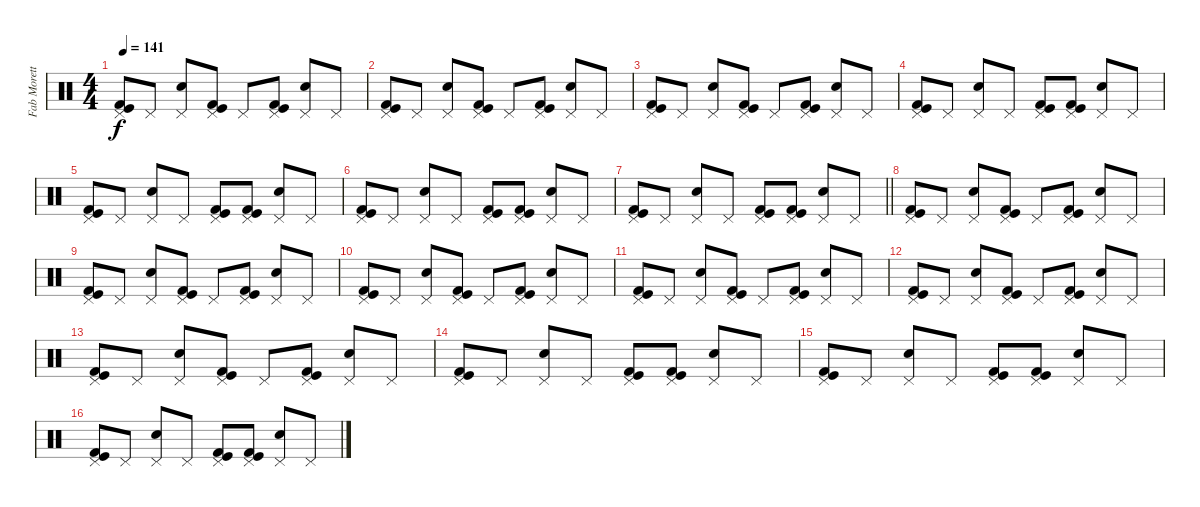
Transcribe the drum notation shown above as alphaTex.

\track ("Fab Moretti - Drums" "Fab Morett") {instrument percussion}
\staff {score}
\articulation defaults
\ts (4 4)
\tempo 141
\clef neutral
\ks c
("Pedal Hi-Hat (hit)" "Kick (hit) 2" "Kick (hit)").8{dy f} "Pedal Hi-Hat (hit)".8 ("Pedal Hi-Hat (hit)" "Snare (hit) 2").8 ("Pedal Hi-Hat (hit)" "Kick (hit) 2" "Kick (hit)").8 "Pedal Hi-Hat (hit)".8 ("Pedal Hi-Hat (hit)" "Kick (hit) 2" "Kick (hit)").8 ("Pedal Hi-Hat (hit)" "Snare (hit) 2").8 "Pedal Hi-Hat (hit)".8 |
("Pedal Hi-Hat (hit)" "Kick (hit) 2" "Kick (hit)").8 "Pedal Hi-Hat (hit)".8 ("Pedal Hi-Hat (hit)" "Snare (hit) 2").8 ("Pedal Hi-Hat (hit)" "Kick (hit) 2" "Kick (hit)").8 "Pedal Hi-Hat (hit)".8 ("Pedal Hi-Hat (hit)" "Kick (hit) 2" "Kick (hit)").8 ("Pedal Hi-Hat (hit)" "Snare (hit) 2").8 "Pedal Hi-Hat (hit)".8 |
("Pedal Hi-Hat (hit)" "Kick (hit) 2" "Kick (hit)").8 "Pedal Hi-Hat (hit)".8 ("Pedal Hi-Hat (hit)" "Snare (hit) 2").8 ("Pedal Hi-Hat (hit)" "Kick (hit) 2" "Kick (hit)").8 "Pedal Hi-Hat (hit)".8 ("Pedal Hi-Hat (hit)" "Kick (hit) 2" "Kick (hit)").8 ("Pedal Hi-Hat (hit)" "Snare (hit) 2").8 "Pedal Hi-Hat (hit)".8 |
("Pedal Hi-Hat (hit)" "Kick (hit) 2" "Kick (hit)").8 "Pedal Hi-Hat (hit)".8 ("Pedal Hi-Hat (hit)" "Snare (hit) 2").8 "Pedal Hi-Hat (hit)".8 ("Pedal Hi-Hat (hit)" "Kick (hit) 2" "Kick (hit)").8 ("Pedal Hi-Hat (hit)" "Kick (hit) 2" "Kick (hit)").8 ("Pedal Hi-Hat (hit)" "Snare (hit) 2").8 "Pedal Hi-Hat (hit)".8 |
("Pedal Hi-Hat (hit)" "Kick (hit) 2" "Kick (hit)").8 "Pedal Hi-Hat (hit)".8 ("Pedal Hi-Hat (hit)" "Snare (hit) 2").8 "Pedal Hi-Hat (hit)".8 ("Pedal Hi-Hat (hit)" "Kick (hit) 2" "Kick (hit)").8 ("Pedal Hi-Hat (hit)" "Kick (hit) 2" "Kick (hit)").8 ("Pedal Hi-Hat (hit)" "Snare (hit) 2").8 "Pedal Hi-Hat (hit)".8 |
("Pedal Hi-Hat (hit)" "Kick (hit) 2" "Kick (hit)").8 "Pedal Hi-Hat (hit)".8 ("Pedal Hi-Hat (hit)" "Snare (hit) 2").8 "Pedal Hi-Hat (hit)".8 ("Pedal Hi-Hat (hit)" "Kick (hit) 2" "Kick (hit)").8 ("Pedal Hi-Hat (hit)" "Kick (hit) 2" "Kick (hit)").8 ("Pedal Hi-Hat (hit)" "Snare (hit) 2").8 "Pedal Hi-Hat (hit)".8 |
\barLineRight lightlight
("Pedal Hi-Hat (hit)" "Kick (hit) 2" "Kick (hit)").8 "Pedal Hi-Hat (hit)".8 ("Pedal Hi-Hat (hit)" "Snare (hit) 2").8 "Pedal Hi-Hat (hit)".8 ("Pedal Hi-Hat (hit)" "Kick (hit) 2" "Kick (hit)").8 ("Pedal Hi-Hat (hit)" "Kick (hit) 2" "Kick (hit)").8 ("Pedal Hi-Hat (hit)" "Snare (hit) 2").8 "Pedal Hi-Hat (hit)".8 |
("Pedal Hi-Hat (hit)" "Kick (hit) 2" "Kick (hit)").8 "Pedal Hi-Hat (hit)".8 ("Pedal Hi-Hat (hit)" "Snare (hit) 2").8 ("Pedal Hi-Hat (hit)" "Kick (hit) 2" "Kick (hit)").8 "Pedal Hi-Hat (hit)".8 ("Pedal Hi-Hat (hit)" "Kick (hit) 2" "Kick (hit)").8 ("Pedal Hi-Hat (hit)" "Snare (hit) 2").8 "Pedal Hi-Hat (hit)".8 |
("Pedal Hi-Hat (hit)" "Kick (hit) 2" "Kick (hit)").8 "Pedal Hi-Hat (hit)".8 ("Pedal Hi-Hat (hit)" "Snare (hit) 2").8 ("Pedal Hi-Hat (hit)" "Kick (hit) 2" "Kick (hit)").8 "Pedal Hi-Hat (hit)".8 ("Pedal Hi-Hat (hit)" "Kick (hit) 2" "Kick (hit)").8 ("Pedal Hi-Hat (hit)" "Snare (hit) 2").8 "Pedal Hi-Hat (hit)".8 |
("Pedal Hi-Hat (hit)" "Kick (hit) 2" "Kick (hit)").8 "Pedal Hi-Hat (hit)".8 ("Pedal Hi-Hat (hit)" "Snare (hit) 2").8 ("Pedal Hi-Hat (hit)" "Kick (hit) 2" "Kick (hit)").8 "Pedal Hi-Hat (hit)".8 ("Pedal Hi-Hat (hit)" "Kick (hit) 2" "Kick (hit)").8 ("Pedal Hi-Hat (hit)" "Snare (hit) 2").8 "Pedal Hi-Hat (hit)".8 |
("Pedal Hi-Hat (hit)" "Kick (hit) 2" "Kick (hit)").8 "Pedal Hi-Hat (hit)".8 ("Pedal Hi-Hat (hit)" "Snare (hit) 2").8 ("Pedal Hi-Hat (hit)" "Kick (hit) 2" "Kick (hit)").8 "Pedal Hi-Hat (hit)".8 ("Pedal Hi-Hat (hit)" "Kick (hit) 2" "Kick (hit)").8 ("Pedal Hi-Hat (hit)" "Snare (hit) 2").8 "Pedal Hi-Hat (hit)".8 |
("Pedal Hi-Hat (hit)" "Kick (hit) 2" "Kick (hit)").8 "Pedal Hi-Hat (hit)".8 ("Pedal Hi-Hat (hit)" "Snare (hit) 2").8 ("Pedal Hi-Hat (hit)" "Kick (hit) 2" "Kick (hit)").8 "Pedal Hi-Hat (hit)".8 ("Pedal Hi-Hat (hit)" "Kick (hit) 2" "Kick (hit)").8 ("Pedal Hi-Hat (hit)" "Snare (hit) 2").8 "Pedal Hi-Hat (hit)".8 |
("Pedal Hi-Hat (hit)" "Kick (hit) 2" "Kick (hit)").8 "Pedal Hi-Hat (hit)".8 ("Pedal Hi-Hat (hit)" "Snare (hit) 2").8 ("Pedal Hi-Hat (hit)" "Kick (hit) 2" "Kick (hit)").8 "Pedal Hi-Hat (hit)".8 ("Pedal Hi-Hat (hit)" "Kick (hit) 2" "Kick (hit)").8 ("Pedal Hi-Hat (hit)" "Snare (hit) 2").8 "Pedal Hi-Hat (hit)".8 |
("Pedal Hi-Hat (hit)" "Kick (hit) 2" "Kick (hit)").8 "Pedal Hi-Hat (hit)".8 ("Pedal Hi-Hat (hit)" "Snare (hit) 2").8 "Pedal Hi-Hat (hit)".8 ("Pedal Hi-Hat (hit)" "Kick (hit) 2" "Kick (hit)").8 ("Pedal Hi-Hat (hit)" "Kick (hit) 2" "Kick (hit)").8 ("Pedal Hi-Hat (hit)" "Snare (hit) 2").8 "Pedal Hi-Hat (hit)".8 |
("Pedal Hi-Hat (hit)" "Kick (hit) 2" "Kick (hit)").8 "Pedal Hi-Hat (hit)".8 ("Pedal Hi-Hat (hit)" "Snare (hit) 2").8 "Pedal Hi-Hat (hit)".8 ("Pedal Hi-Hat (hit)" "Kick (hit) 2" "Kick (hit)").8 ("Pedal Hi-Hat (hit)" "Kick (hit) 2" "Kick (hit)").8 ("Pedal Hi-Hat (hit)" "Snare (hit) 2").8 "Pedal Hi-Hat (hit)".8 |
("Pedal Hi-Hat (hit)" "Kick (hit) 2" "Kick (hit)").8 "Pedal Hi-Hat (hit)".8 ("Pedal Hi-Hat (hit)" "Snare (hit) 2").8 "Pedal Hi-Hat (hit)".8 ("Pedal Hi-Hat (hit)" "Kick (hit) 2" "Kick (hit)").8 ("Pedal Hi-Hat (hit)" "Kick (hit) 2" "Kick (hit)").8 ("Pedal Hi-Hat (hit)" "Snare (hit) 2").8 "Pedal Hi-Hat (hit)".8
